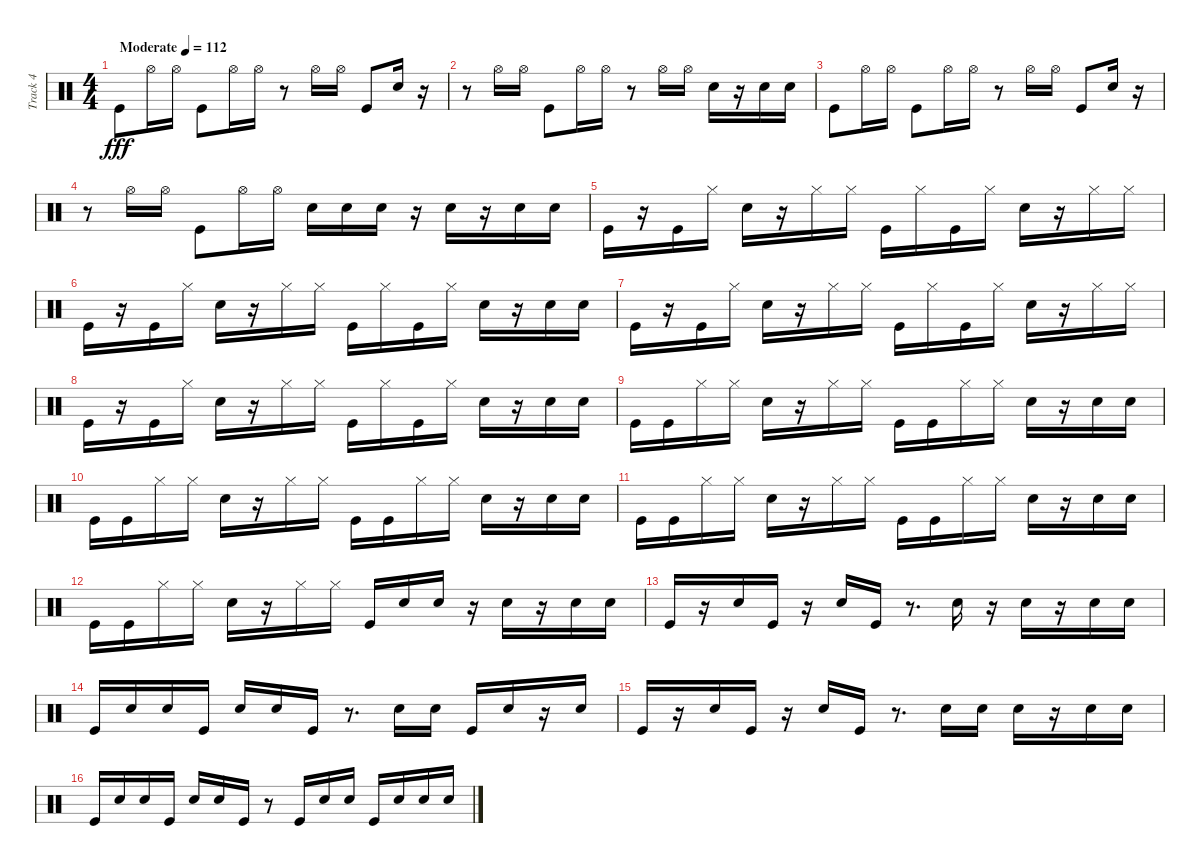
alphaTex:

\track ("Track 4" "Track 4") {instrument percussion}
\staff {score}
\articulation defaults
\ts (4 4)
\tempo (112 "Moderate")
\clef neutral
\ks c "Kick (hit)".8{dy fff} "Hi-Hat (open)".16 "Hi-Hat (open)".16 "Kick (hit)".8 "Hi-Hat (open)".16 "Hi-Hat (open)".16
r.8 "Hi-Hat (open)".16 "Hi-Hat (open)".16 "Kick (hit)".8 "Snare (hit) 2".16 r.16 |
r.8 "Hi-Hat (open)".16 "Hi-Hat (open)".16 "Kick (hit)".8 "Hi-Hat (open)".16 "Hi-Hat (open)".16 r.8 "Hi-Hat (open)".16 "Hi-Hat (open)".16 "Snare (hit) 2".16 r.16 "Snare (hit) 2".16 "Snare (hit) 2".16 |
"Kick (hit)".8 "Hi-Hat (open)".16 "Hi-Hat (open)".16 "Kick (hit)".8 "Hi-Hat (open)".16 "Hi-Hat (open)".16 r.8 "Hi-Hat (open)".16 "Hi-Hat (open)".16 "Kick (hit)".8 "Snare (hit) 2".16 r.16 |
r.8 "Hi-Hat (open)".16 "Hi-Hat (open)".16 "Kick (hit)".8 "Hi-Hat (open)".16 "Hi-Hat (open)".16 "Snare (hit) 2".16 "Snare (hit) 2".16 "Snare (hit) 2".16 r.16 "Snare (hit) 2".16 r.16 "Snare (hit) 2".16 "Snare (hit) 2".16 |
"Kick (hit)".16 r.16 "Kick (hit)".16 "Hi-Hat (closed)".16 "Snare (hit) 2".16 r.16 "Hi-Hat (closed)".16 "Hi-Hat (closed)".16 "Kick (hit)".16 "Hi-Hat (closed)".16 "Kick (hit)".16 "Hi-Hat (closed)".16 "Snare (hit) 2".16 r.16 "Hi-Hat (closed)".16 "Hi-Hat (closed)".16 |
"Kick (hit)".16 r.16 "Kick (hit)".16 "Hi-Hat (closed)".16 "Snare (hit) 2".16 r.16 "Hi-Hat (closed)".16 "Hi-Hat (closed)".16 "Kick (hit)".16 "Hi-Hat (closed)".16 "Kick (hit)".16 "Hi-Hat (closed)".16 "Snare (hit) 2".16 r.16 "Snare (hit) 2".16 "Snare (hit) 2".16 |
"Kick (hit)".16 r.16 "Kick (hit)".16 "Hi-Hat (closed)".16 "Snare (hit) 2".16 r.16 "Hi-Hat (closed)".16 "Hi-Hat (closed)".16 "Kick (hit)".16 "Hi-Hat (closed)".16 "Kick (hit)".16 "Hi-Hat (closed)".16 "Snare (hit) 2".16 r.16 "Hi-Hat (closed)".16 "Hi-Hat (closed)".16 |
"Kick (hit)".16 r.16 "Kick (hit)".16 "Hi-Hat (closed)".16 "Snare (hit) 2".16 r.16 "Hi-Hat (closed)".16 "Hi-Hat (closed)".16 "Kick (hit)".16 "Hi-Hat (closed)".16 "Kick (hit)".16 "Hi-Hat (closed)".16 "Snare (hit) 2".16 r.16 "Snare (hit) 2".16 "Snare (hit) 2".16 |
"Kick (hit)".16 "Kick (hit)".16 "Hi-Hat (closed)".16 "Hi-Hat (closed)".16 "Snare (hit) 2".16 r.16 "Hi-Hat (closed)".16 "Hi-Hat (closed)".16 "Kick (hit)".16 "Kick (hit)".16 "Hi-Hat (closed)".16 "Hi-Hat (closed)".16 "Snare (hit) 2".16 r.16 "Snare (hit) 2".16 "Snare (hit) 2".16 |
"Kick (hit)".16 "Kick (hit)".16 "Hi-Hat (closed)".16 "Hi-Hat (closed)".16 "Snare (hit) 2".16 r.16 "Hi-Hat (closed)".16 "Hi-Hat (closed)".16 "Kick (hit)".16 "Kick (hit)".16 "Hi-Hat (closed)".16 "Hi-Hat (closed)".16 "Snare (hit) 2".16 r.16 "Snare (hit) 2".16 "Snare (hit) 2".16 |
"Kick (hit)".16 "Kick (hit)".16 "Hi-Hat (closed)".16 "Hi-Hat (closed)".16 "Snare (hit) 2".16 r.16 "Hi-Hat (closed)".16 "Hi-Hat (closed)".16 "Kick (hit)".16 "Kick (hit)".16 "Hi-Hat (closed)".16 "Hi-Hat (closed)".16 "Snare (hit) 2".16 r.16 "Snare (hit) 2".16 "Snare (hit) 2".16 |
"Kick (hit)".16 "Kick (hit)".16 "Hi-Hat (closed)".16 "Hi-Hat (closed)".16 "Snare (hit) 2".16 r.16 "Hi-Hat (closed)".16 "Hi-Hat (closed)".16 "Kick (hit)".16 "Snare (hit) 2".16 "Snare (hit) 2".16 r.16 "Snare (hit) 2".16 r.16 "Snare (hit) 2".16 "Snare (hit) 2".16 |
"Kick (hit)".16 r.16 "Snare (hit) 2".16 "Kick (hit)".16 r.16 "Snare (hit) 2".16 "Kick (hit)".16 r.8{d} "Snare (hit) 2".16 r.16 "Snare (hit) 2".16 r.16 "Snare (hit) 2".16 "Snare (hit) 2".16 |
"Kick (hit)".16 "Snare (hit) 2".16 "Snare (hit) 2".16 "Kick (hit)".16 "Snare (hit) 2".16 "Snare (hit) 2".16 "Kick (hit)".16 r.8{d} "Snare (hit) 2".16 "Snare (hit) 2".16 "Kick (hit)".16 "Snare (hit) 2".16 r.16 "Snare (hit) 2".16 |
"Kick (hit)".16 r.16 "Snare (hit) 2".16 "Kick (hit)".16 r.16 "Snare (hit) 2".16 "Kick (hit)".16 r.8{d} "Snare (hit) 2".16 "Snare (hit) 2".16 "Snare (hit) 2".16 r.16 "Snare (hit) 2".16 "Snare (hit) 2".16 |
"Kick (hit)".16 "Snare (hit) 2".16 "Snare (hit) 2".16 "Kick (hit)".16 "Snare (hit) 2".16 "Snare (hit) 2".16 "Kick (hit)".16 r.8 "Kick (hit)".16 "Snare (hit) 2".16 "Snare (hit) 2".16 "Kick (hit)".16 "Snare (hit) 2".16 "Snare (hit) 2".16 "Snare (hit) 2".16
